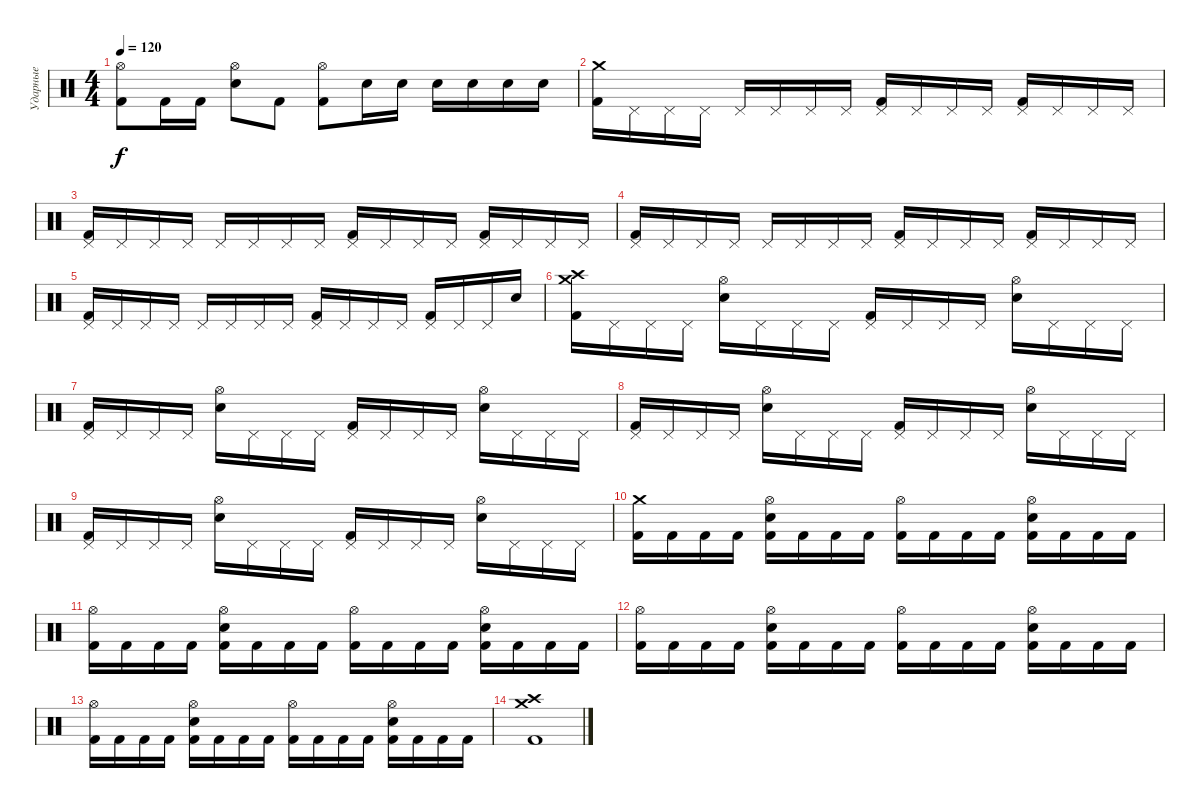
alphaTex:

\track ("Ударные" "Ударные") {instrument percussion}
\staff {score}
\articulation defaults
\ts (4 4)
\tempo 120
\clef neutral
\ks c
("Hi-Hat (open)" "Kick (hit) 2").8{dy f} "Kick (hit) 2".16 "Kick (hit) 2".16 ("Hi-Hat (open)" "Electric Snare (hit)").8 "Kick (hit) 2".8 ("Hi-Hat (open)" "Kick (hit) 2").8 "Electric Snare (hit)".16 "Electric Snare (hit)".16 "Electric Snare (hit)".16 "Electric Snare (hit)".16 "Electric Snare (hit)".16 "Electric Snare (hit)".16 |
("Crash medium (hit)" "Kick (hit) 2").16 "Pedal Hi-Hat (hit)".16 "Pedal Hi-Hat (hit)".16 "Pedal Hi-Hat (hit)".16 "Pedal Hi-Hat (hit)".16 "Pedal Hi-Hat (hit)".16 "Pedal Hi-Hat (hit)".16 "Pedal Hi-Hat (hit)".16 ("Pedal Hi-Hat (hit)" "Kick (hit) 2").16 "Pedal Hi-Hat (hit)".16 "Pedal Hi-Hat (hit)".16 "Pedal Hi-Hat (hit)".16 ("Pedal Hi-Hat (hit)" "Kick (hit) 2").16 "Pedal Hi-Hat (hit)".16 "Pedal Hi-Hat (hit)".16 "Pedal Hi-Hat (hit)".16 |
("Pedal Hi-Hat (hit)" "Kick (hit) 2").16 "Pedal Hi-Hat (hit)".16 "Pedal Hi-Hat (hit)".16 "Pedal Hi-Hat (hit)".16 "Pedal Hi-Hat (hit)".16 "Pedal Hi-Hat (hit)".16 "Pedal Hi-Hat (hit)".16 "Pedal Hi-Hat (hit)".16 ("Pedal Hi-Hat (hit)" "Kick (hit) 2").16 "Pedal Hi-Hat (hit)".16 "Pedal Hi-Hat (hit)".16 "Pedal Hi-Hat (hit)".16 ("Pedal Hi-Hat (hit)" "Kick (hit) 2").16 "Pedal Hi-Hat (hit)".16 "Pedal Hi-Hat (hit)".16 "Pedal Hi-Hat (hit)".16 |
("Pedal Hi-Hat (hit)" "Kick (hit) 2").16 "Pedal Hi-Hat (hit)".16 "Pedal Hi-Hat (hit)".16 "Pedal Hi-Hat (hit)".16 "Pedal Hi-Hat (hit)".16 "Pedal Hi-Hat (hit)".16 "Pedal Hi-Hat (hit)".16 "Pedal Hi-Hat (hit)".16 ("Pedal Hi-Hat (hit)" "Kick (hit) 2").16 "Pedal Hi-Hat (hit)".16 "Pedal Hi-Hat (hit)".16 "Pedal Hi-Hat (hit)".16 ("Pedal Hi-Hat (hit)" "Kick (hit) 2").16 "Pedal Hi-Hat (hit)".16 "Pedal Hi-Hat (hit)".16 "Pedal Hi-Hat (hit)".16 |
("Pedal Hi-Hat (hit)" "Kick (hit) 2").16 "Pedal Hi-Hat (hit)".16 "Pedal Hi-Hat (hit)".16 "Pedal Hi-Hat (hit)".16 "Pedal Hi-Hat (hit)".16 "Pedal Hi-Hat (hit)".16 "Pedal Hi-Hat (hit)".16 "Pedal Hi-Hat (hit)".16 ("Pedal Hi-Hat (hit)" "Kick (hit) 2").16 "Pedal Hi-Hat (hit)".16 "Pedal Hi-Hat (hit)".16 "Pedal Hi-Hat (hit)".16 ("Pedal Hi-Hat (hit)" "Kick (hit) 2").16 "Pedal Hi-Hat (hit)".16 "Pedal Hi-Hat (hit)".16 "Snare (hit)".16 |
("Crash medium (hit)" "Crash high (hit)" "Kick (hit) 2").16 "Pedal Hi-Hat (hit)".16 "Pedal Hi-Hat (hit)".16 "Pedal Hi-Hat (hit)".16 ("Hi-Hat (open)" "Electric Snare (hit)").16 "Pedal Hi-Hat (hit)".16 "Pedal Hi-Hat (hit)".16 "Pedal Hi-Hat (hit)".16 ("Pedal Hi-Hat (hit)" "Kick (hit) 2").16 "Pedal Hi-Hat (hit)".16 "Pedal Hi-Hat (hit)".16 "Pedal Hi-Hat (hit)".16 ("Hi-Hat (open)" "Electric Snare (hit)").16 "Pedal Hi-Hat (hit)".16 "Pedal Hi-Hat (hit)".16 "Pedal Hi-Hat (hit)".16 |
("Pedal Hi-Hat (hit)" "Kick (hit) 2").16 "Pedal Hi-Hat (hit)".16 "Pedal Hi-Hat (hit)".16 "Pedal Hi-Hat (hit)".16 ("Hi-Hat (open)" "Electric Snare (hit)").16 "Pedal Hi-Hat (hit)".16 "Pedal Hi-Hat (hit)".16 "Pedal Hi-Hat (hit)".16 ("Pedal Hi-Hat (hit)" "Kick (hit) 2").16 "Pedal Hi-Hat (hit)".16 "Pedal Hi-Hat (hit)".16 "Pedal Hi-Hat (hit)".16 ("Hi-Hat (open)" "Electric Snare (hit)").16 "Pedal Hi-Hat (hit)".16 "Pedal Hi-Hat (hit)".16 "Pedal Hi-Hat (hit)".16 |
("Pedal Hi-Hat (hit)" "Kick (hit) 2").16 "Pedal Hi-Hat (hit)".16 "Pedal Hi-Hat (hit)".16 "Pedal Hi-Hat (hit)".16 ("Hi-Hat (open)" "Electric Snare (hit)").16 "Pedal Hi-Hat (hit)".16 "Pedal Hi-Hat (hit)".16 "Pedal Hi-Hat (hit)".16 ("Pedal Hi-Hat (hit)" "Kick (hit) 2").16 "Pedal Hi-Hat (hit)".16 "Pedal Hi-Hat (hit)".16 "Pedal Hi-Hat (hit)".16 ("Hi-Hat (open)" "Electric Snare (hit)").16 "Pedal Hi-Hat (hit)".16 "Pedal Hi-Hat (hit)".16 "Pedal Hi-Hat (hit)".16 |
("Pedal Hi-Hat (hit)" "Kick (hit) 2").16 "Pedal Hi-Hat (hit)".16 "Pedal Hi-Hat (hit)".16 "Pedal Hi-Hat (hit)".16 ("Hi-Hat (open)" "Electric Snare (hit)").16 "Pedal Hi-Hat (hit)".16 "Pedal Hi-Hat (hit)".16 "Pedal Hi-Hat (hit)".16 ("Pedal Hi-Hat (hit)" "Kick (hit) 2").16 "Pedal Hi-Hat (hit)".16 "Pedal Hi-Hat (hit)".16 "Pedal Hi-Hat (hit)".16 ("Hi-Hat (open)" "Electric Snare (hit)").16 "Pedal Hi-Hat (hit)".16 "Pedal Hi-Hat (hit)".16 "Pedal Hi-Hat (hit)".16 |
("Crash medium (hit)" "Kick (hit) 2").16 "Kick (hit) 2".16 "Kick (hit) 2".16 "Kick (hit) 2".16 ("Hi-Hat (open)" "Electric Snare (hit)" "Kick (hit) 2").16 "Kick (hit) 2".16 "Kick (hit) 2".16 "Kick (hit) 2".16 ("Hi-Hat (open)" "Kick (hit) 2").16 "Kick (hit) 2".16 "Kick (hit) 2".16 "Kick (hit) 2".16 ("Hi-Hat (open)" "Electric Snare (hit)" "Kick (hit) 2").16 "Kick (hit) 2".16 "Kick (hit) 2".16 "Kick (hit) 2".16 |
("Hi-Hat (open)" "Kick (hit) 2").16 "Kick (hit) 2".16 "Kick (hit) 2".16 "Kick (hit) 2".16 ("Hi-Hat (open)" "Electric Snare (hit)" "Kick (hit) 2").16 "Kick (hit) 2".16 "Kick (hit) 2".16 "Kick (hit) 2".16 ("Hi-Hat (open)" "Kick (hit) 2").16 "Kick (hit) 2".16 "Kick (hit) 2".16 "Kick (hit) 2".16 ("Hi-Hat (open)" "Electric Snare (hit)" "Kick (hit) 2").16 "Kick (hit) 2".16 "Kick (hit) 2".16 "Kick (hit) 2".16 |
("Hi-Hat (open)" "Kick (hit) 2").16 "Kick (hit) 2".16 "Kick (hit) 2".16 "Kick (hit) 2".16 ("Hi-Hat (open)" "Electric Snare (hit)" "Kick (hit) 2").16 "Kick (hit) 2".16 "Kick (hit) 2".16 "Kick (hit) 2".16 ("Hi-Hat (open)" "Kick (hit) 2").16 "Kick (hit) 2".16 "Kick (hit) 2".16 "Kick (hit) 2".16 ("Hi-Hat (open)" "Electric Snare (hit)" "Kick (hit) 2").16 "Kick (hit) 2".16 "Kick (hit) 2".16 "Kick (hit) 2".16 |
("Hi-Hat (open)" "Kick (hit) 2").16 "Kick (hit) 2".16 "Kick (hit) 2".16 "Kick (hit) 2".16 ("Hi-Hat (open)" "Electric Snare (hit)" "Kick (hit) 2").16 "Kick (hit) 2".16 "Kick (hit) 2".16 "Kick (hit) 2".16 ("Hi-Hat (open)" "Kick (hit) 2").16 "Kick (hit) 2".16 "Kick (hit) 2".16 "Kick (hit) 2".16 ("Hi-Hat (open)" "Electric Snare (hit)" "Kick (hit) 2").16 "Kick (hit) 2".16 "Kick (hit) 2".16 "Kick (hit) 2".16 |
("Crash medium (hit)" "Crash high (hit)" "Kick (hit) 2").1
